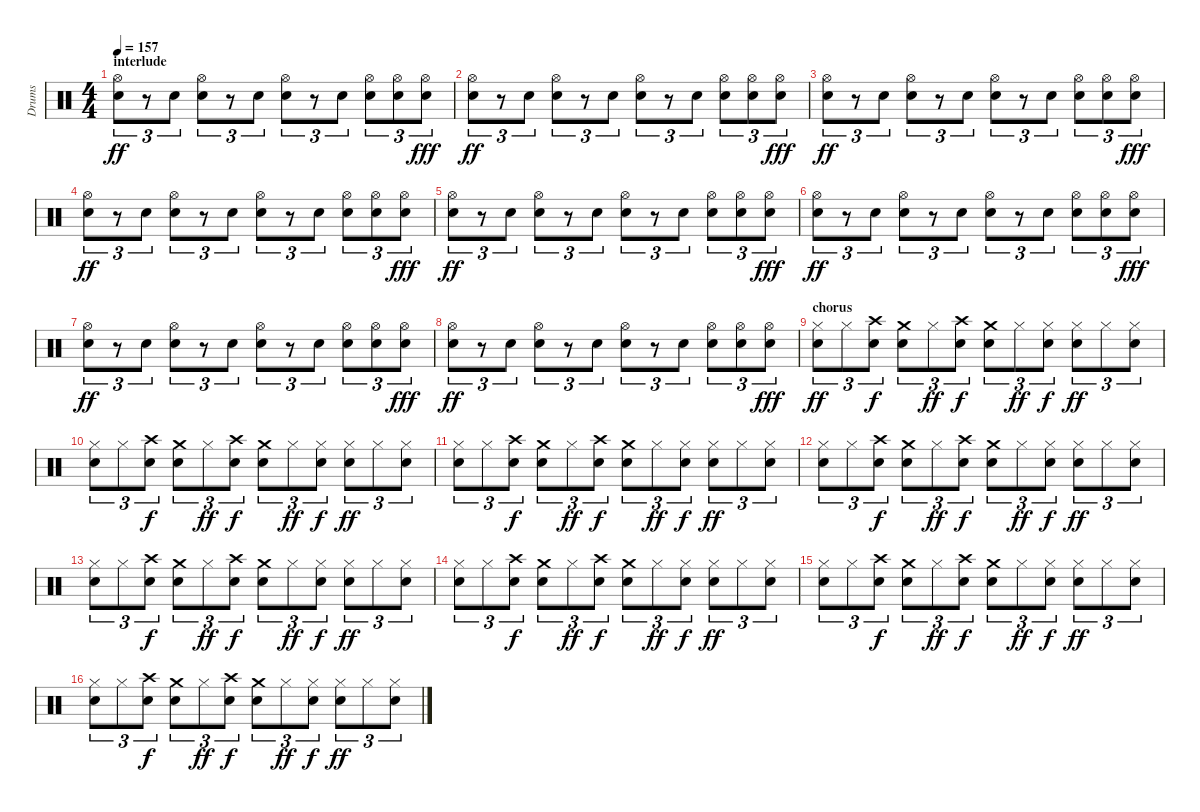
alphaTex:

\track ("Drums" "Drums") {instrument percussion}
\staff {score}
\articulation defaults
\ts (4 4)
\section ("" "interlude")
\tempo 157
\clef neutral
\ks c
("Electric Snare (hit)" "Hi-Hat (open)").8{tu (3 2) dy ff} r.8{tu (3 2)} "Electric Snare (hit)".8{tu (3 2)} ("Electric Snare (hit)" "Hi-Hat (open)").8{tu (3 2)} r.8{tu (3 2)} "Electric Snare (hit)".8{tu (3 2)} ("Electric Snare (hit)" "Hi-Hat (open)").8{tu (3 2)} r.8{tu (3 2)} "Electric Snare (hit)".8{tu (3 2)} ("Electric Snare (hit)" "Hi-Hat (open)").8{tu (3 2)} ("Electric Snare (hit)" "Hi-Hat (open)").8{tu (3 2)} ("Electric Snare (hit)" "Hi-Hat (open)").8{tu (3 2) dy fff} |
("Electric Snare (hit)" "Hi-Hat (open)").8{tu (3 2) dy ff} r.8{tu (3 2)} "Electric Snare (hit)".8{tu (3 2)} ("Electric Snare (hit)" "Hi-Hat (open)").8{tu (3 2)} r.8{tu (3 2)} "Electric Snare (hit)".8{tu (3 2)} ("Electric Snare (hit)" "Hi-Hat (open)").8{tu (3 2)} r.8{tu (3 2)} "Electric Snare (hit)".8{tu (3 2)} ("Electric Snare (hit)" "Hi-Hat (open)").8{tu (3 2)} ("Electric Snare (hit)" "Hi-Hat (open)").8{tu (3 2)} ("Electric Snare (hit)" "Hi-Hat (open)").8{tu (3 2) dy fff} |
("Electric Snare (hit)" "Hi-Hat (open)").8{tu (3 2) dy ff} r.8{tu (3 2)} "Electric Snare (hit)".8{tu (3 2)} ("Electric Snare (hit)" "Hi-Hat (open)").8{tu (3 2)} r.8{tu (3 2)} "Electric Snare (hit)".8{tu (3 2)} ("Electric Snare (hit)" "Hi-Hat (open)").8{tu (3 2)} r.8{tu (3 2)} "Electric Snare (hit)".8{tu (3 2)} ("Electric Snare (hit)" "Hi-Hat (open)").8{tu (3 2)} ("Electric Snare (hit)" "Hi-Hat (open)").8{tu (3 2)} ("Electric Snare (hit)" "Hi-Hat (open)").8{tu (3 2) dy fff} |
("Electric Snare (hit)" "Hi-Hat (open)").8{tu (3 2) dy ff} r.8{tu (3 2)} "Electric Snare (hit)".8{tu (3 2)} ("Electric Snare (hit)" "Hi-Hat (open)").8{tu (3 2)} r.8{tu (3 2)} "Electric Snare (hit)".8{tu (3 2)} ("Electric Snare (hit)" "Hi-Hat (open)").8{tu (3 2)} r.8{tu (3 2)} "Electric Snare (hit)".8{tu (3 2)} ("Electric Snare (hit)" "Hi-Hat (open)").8{tu (3 2)} ("Electric Snare (hit)" "Hi-Hat (open)").8{tu (3 2)} ("Electric Snare (hit)" "Hi-Hat (open)").8{tu (3 2) dy fff} |
("Electric Snare (hit)" "Hi-Hat (open)").8{tu (3 2) dy ff} r.8{tu (3 2)} "Electric Snare (hit)".8{tu (3 2)} ("Electric Snare (hit)" "Hi-Hat (open)").8{tu (3 2)} r.8{tu (3 2)} "Electric Snare (hit)".8{tu (3 2)} ("Electric Snare (hit)" "Hi-Hat (open)").8{tu (3 2)} r.8{tu (3 2)} "Electric Snare (hit)".8{tu (3 2)} ("Electric Snare (hit)" "Hi-Hat (open)").8{tu (3 2)} ("Electric Snare (hit)" "Hi-Hat (open)").8{tu (3 2)} ("Electric Snare (hit)" "Hi-Hat (open)").8{tu (3 2) dy fff} |
("Electric Snare (hit)" "Hi-Hat (open)").8{tu (3 2) dy ff} r.8{tu (3 2)} "Electric Snare (hit)".8{tu (3 2)} ("Electric Snare (hit)" "Hi-Hat (open)").8{tu (3 2)} r.8{tu (3 2)} "Electric Snare (hit)".8{tu (3 2)} ("Electric Snare (hit)" "Hi-Hat (open)").8{tu (3 2)} r.8{tu (3 2)} "Electric Snare (hit)".8{tu (3 2)} ("Electric Snare (hit)" "Hi-Hat (open)").8{tu (3 2)} ("Electric Snare (hit)" "Hi-Hat (open)").8{tu (3 2)} ("Electric Snare (hit)" "Hi-Hat (open)").8{tu (3 2) dy fff} |
("Electric Snare (hit)" "Hi-Hat (open)").8{tu (3 2) dy ff} r.8{tu (3 2)} "Electric Snare (hit)".8{tu (3 2)} ("Electric Snare (hit)" "Hi-Hat (open)").8{tu (3 2)} r.8{tu (3 2)} "Electric Snare (hit)".8{tu (3 2)} ("Electric Snare (hit)" "Hi-Hat (open)").8{tu (3 2)} r.8{tu (3 2)} "Electric Snare (hit)".8{tu (3 2)} ("Electric Snare (hit)" "Hi-Hat (open)").8{tu (3 2)} ("Electric Snare (hit)" "Hi-Hat (open)").8{tu (3 2)} ("Electric Snare (hit)" "Hi-Hat (open)").8{tu (3 2) dy fff} |
("Electric Snare (hit)" "Hi-Hat (open)").8{tu (3 2) dy ff} r.8{tu (3 2)} "Electric Snare (hit)".8{tu (3 2)} ("Electric Snare (hit)" "Hi-Hat (open)").8{tu (3 2)} r.8{tu (3 2)} "Electric Snare (hit)".8{tu (3 2)} ("Electric Snare (hit)" "Hi-Hat (open)").8{tu (3 2)} r.8{tu (3 2)} "Electric Snare (hit)".8{tu (3 2)} ("Electric Snare (hit)" "Hi-Hat (open)").8{tu (3 2)} ("Electric Snare (hit)" "Hi-Hat (open)").8{tu (3 2)} ("Electric Snare (hit)" "Hi-Hat (open)").8{tu (3 2) dy fff} |
\section ("" "chorus")
("Hi-Hat (closed)" "Electric Snare (hit)").8{tu (3 2) dy ff} "Hi-Hat (closed)".8{tu (3 2)} ("Electric Snare (hit)" "Crash high (hit)").8{tu (3 2) dy f} ("Crash medium (hit)" "Electric Snare (hit)").8{tu (3 2)} "Hi-Hat (closed)".8{tu (3 2) dy ff} ("Electric Snare (hit)" "Crash high (hit)").8{tu (3 2) dy f} ("Crash medium (hit)" "Electric Snare (hit)").8{tu (3 2)} "Hi-Hat (closed)".8{tu (3 2) dy ff} ("Electric Snare (hit)" "Hi-Hat (closed)").8{tu (3 2) dy f} ("Hi-Hat (closed)" "Electric Snare (hit)").8{tu (3 2) dy ff} "Hi-Hat (closed)".8{tu (3 2)} ("Hi-Hat (closed)" "Electric Snare (hit)").8{tu (3 2)} |
("Hi-Hat (closed)" "Electric Snare (hit)").8{tu (3 2)} "Hi-Hat (closed)".8{tu (3 2)} ("Electric Snare (hit)" "Crash high (hit)").8{tu (3 2) dy f} ("Crash medium (hit)" "Electric Snare (hit)").8{tu (3 2)} "Hi-Hat (closed)".8{tu (3 2) dy ff} ("Electric Snare (hit)" "Crash high (hit)").8{tu (3 2) dy f} ("Crash medium (hit)" "Electric Snare (hit)").8{tu (3 2)} "Hi-Hat (closed)".8{tu (3 2) dy ff} ("Electric Snare (hit)" "Hi-Hat (closed)").8{tu (3 2) dy f} ("Hi-Hat (closed)" "Electric Snare (hit)").8{tu (3 2) dy ff} "Hi-Hat (closed)".8{tu (3 2)} ("Hi-Hat (closed)" "Electric Snare (hit)").8{tu (3 2)} |
("Hi-Hat (closed)" "Electric Snare (hit)").8{tu (3 2)} "Hi-Hat (closed)".8{tu (3 2)} ("Electric Snare (hit)" "Crash high (hit)").8{tu (3 2) dy f} ("Crash medium (hit)" "Electric Snare (hit)").8{tu (3 2)} "Hi-Hat (closed)".8{tu (3 2) dy ff} ("Electric Snare (hit)" "Crash high (hit)").8{tu (3 2) dy f} ("Crash medium (hit)" "Electric Snare (hit)").8{tu (3 2)} "Hi-Hat (closed)".8{tu (3 2) dy ff} ("Electric Snare (hit)" "Hi-Hat (closed)").8{tu (3 2) dy f} ("Hi-Hat (closed)" "Electric Snare (hit)").8{tu (3 2) dy ff} "Hi-Hat (closed)".8{tu (3 2)} ("Hi-Hat (closed)" "Electric Snare (hit)").8{tu (3 2)} |
("Hi-Hat (closed)" "Electric Snare (hit)").8{tu (3 2)} "Hi-Hat (closed)".8{tu (3 2)} ("Electric Snare (hit)" "Crash high (hit)").8{tu (3 2) dy f} ("Crash medium (hit)" "Electric Snare (hit)").8{tu (3 2)} "Hi-Hat (closed)".8{tu (3 2) dy ff} ("Electric Snare (hit)" "Crash high (hit)").8{tu (3 2) dy f} ("Crash medium (hit)" "Electric Snare (hit)").8{tu (3 2)} "Hi-Hat (closed)".8{tu (3 2) dy ff} ("Electric Snare (hit)" "Hi-Hat (closed)").8{tu (3 2) dy f} ("Hi-Hat (closed)" "Electric Snare (hit)").8{tu (3 2) dy ff} "Hi-Hat (closed)".8{tu (3 2)} ("Hi-Hat (closed)" "Electric Snare (hit)").8{tu (3 2)} |
("Hi-Hat (closed)" "Electric Snare (hit)").8{tu (3 2)} "Hi-Hat (closed)".8{tu (3 2)} ("Electric Snare (hit)" "Crash high (hit)").8{tu (3 2) dy f} ("Crash medium (hit)" "Electric Snare (hit)").8{tu (3 2)} "Hi-Hat (closed)".8{tu (3 2) dy ff} ("Electric Snare (hit)" "Crash high (hit)").8{tu (3 2) dy f} ("Crash medium (hit)" "Electric Snare (hit)").8{tu (3 2)} "Hi-Hat (closed)".8{tu (3 2) dy ff} ("Electric Snare (hit)" "Hi-Hat (closed)").8{tu (3 2) dy f} ("Hi-Hat (closed)" "Electric Snare (hit)").8{tu (3 2) dy ff} "Hi-Hat (closed)".8{tu (3 2)} ("Hi-Hat (closed)" "Electric Snare (hit)").8{tu (3 2)} |
("Hi-Hat (closed)" "Electric Snare (hit)").8{tu (3 2)} "Hi-Hat (closed)".8{tu (3 2)} ("Electric Snare (hit)" "Crash high (hit)").8{tu (3 2) dy f} ("Crash medium (hit)" "Electric Snare (hit)").8{tu (3 2)} "Hi-Hat (closed)".8{tu (3 2) dy ff} ("Electric Snare (hit)" "Crash high (hit)").8{tu (3 2) dy f} ("Crash medium (hit)" "Electric Snare (hit)").8{tu (3 2)} "Hi-Hat (closed)".8{tu (3 2) dy ff} ("Electric Snare (hit)" "Hi-Hat (closed)").8{tu (3 2) dy f} ("Hi-Hat (closed)" "Electric Snare (hit)").8{tu (3 2) dy ff} "Hi-Hat (closed)".8{tu (3 2)} ("Hi-Hat (closed)" "Electric Snare (hit)").8{tu (3 2)} |
("Hi-Hat (closed)" "Electric Snare (hit)").8{tu (3 2)} "Hi-Hat (closed)".8{tu (3 2)} ("Electric Snare (hit)" "Crash high (hit)").8{tu (3 2) dy f} ("Crash medium (hit)" "Electric Snare (hit)").8{tu (3 2)} "Hi-Hat (closed)".8{tu (3 2) dy ff} ("Electric Snare (hit)" "Crash high (hit)").8{tu (3 2) dy f} ("Crash medium (hit)" "Electric Snare (hit)").8{tu (3 2)} "Hi-Hat (closed)".8{tu (3 2) dy ff} ("Electric Snare (hit)" "Hi-Hat (closed)").8{tu (3 2) dy f} ("Hi-Hat (closed)" "Electric Snare (hit)").8{tu (3 2) dy ff} "Hi-Hat (closed)".8{tu (3 2)} ("Hi-Hat (closed)" "Electric Snare (hit)").8{tu (3 2)} |
("Hi-Hat (closed)" "Electric Snare (hit)").8{tu (3 2)} "Hi-Hat (closed)".8{tu (3 2)} ("Electric Snare (hit)" "Crash high (hit)").8{tu (3 2) dy f} ("Crash medium (hit)" "Electric Snare (hit)").8{tu (3 2)} "Hi-Hat (closed)".8{tu (3 2) dy ff} ("Electric Snare (hit)" "Crash high (hit)").8{tu (3 2) dy f} ("Crash medium (hit)" "Electric Snare (hit)").8{tu (3 2)} "Hi-Hat (closed)".8{tu (3 2) dy ff} ("Electric Snare (hit)" "Hi-Hat (closed)").8{tu (3 2) dy f} ("Hi-Hat (closed)" "Electric Snare (hit)").8{tu (3 2) dy ff} "Hi-Hat (closed)".8{tu (3 2)} ("Hi-Hat (closed)" "Electric Snare (hit)").8{tu (3 2)}
